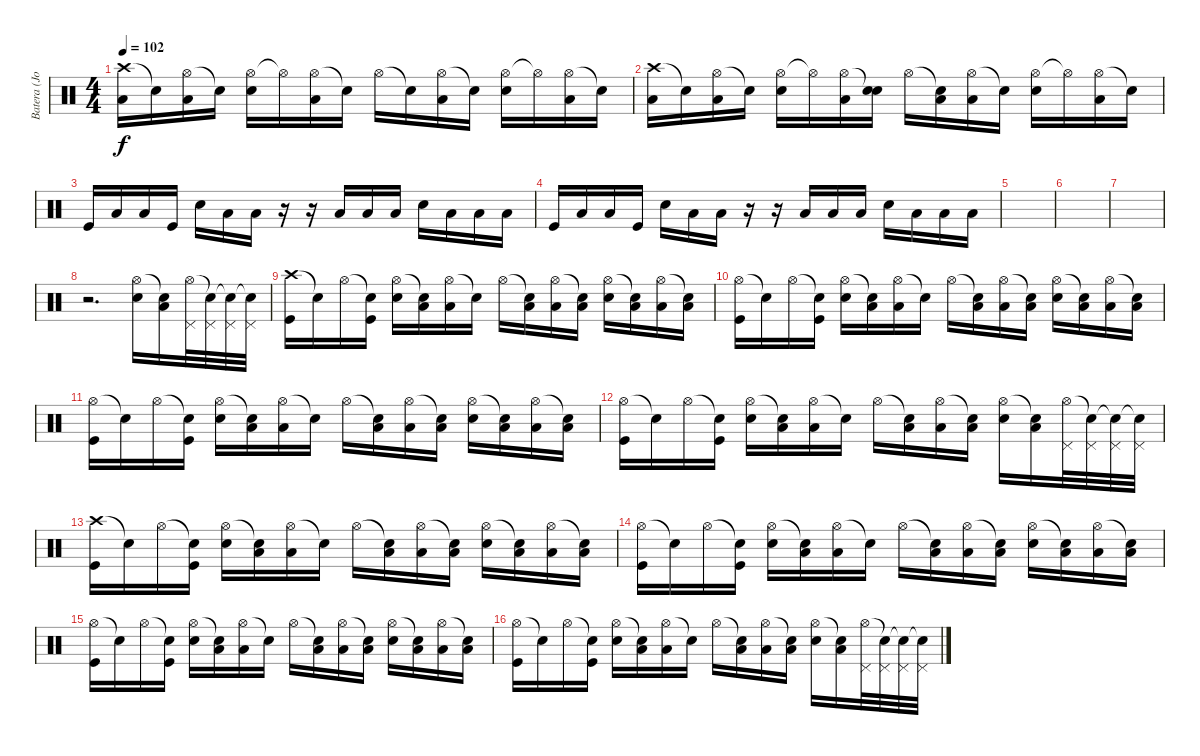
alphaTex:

\track ("Batera (John)" "Batera (Jo") {instrument percussion}
\staff {score}
\articulation defaults
\ts (4 4)
\tempo 102
\clef neutral
\ks c
("Crash high (hit)" "Low Tom (hit)").16{dy f} "Snare (hit)"{t}.16 ("Hi-Hat (open)" "Low Tom (hit)").16 "Snare (hit)"{t}.16 ("Hi-Hat (open)" "Snare (hit) 2").16 "Hi-Hat (open)"{t}.16 ("Hi-Hat (open)" "Low Tom (hit)").16 "Snare (hit)"{t}.16 "Hi-Hat (open)".16 "Snare (hit)"{t}.16 ("Hi-Hat (open)" "Low Tom (hit)").16 "Snare (hit)"{t}.16 ("Hi-Hat (open)" "Snare (hit) 2").16 "Hi-Hat (open)"{t}.16 ("Hi-Hat (open)" "Low Tom (hit)").16 "Snare (hit)"{t}.16 |
("Crash high (hit)" "Low Tom (hit)").16 "Snare (hit)"{t}.16 ("Hi-Hat (open)" "Low Tom (hit)").16 "Snare (hit)"{t}.16 ("Hi-Hat (open)" "Snare (hit) 2").16 "Hi-Hat (open)"{t}.16 ("Hi-Hat (open)" "Low Tom (hit)").16 ("Snare (hit)"{t} "Snare (hit) 2").16 "Hi-Hat (open)".16 ("Snare (hit)"{t} "Low Tom (hit)").16 ("Hi-Hat (open)" "Low Tom (hit)").16 "Snare (hit)"{t}.16 ("Hi-Hat (open)" "Snare (hit) 2").16 "Hi-Hat (open)"{t}.16 ("Hi-Hat (open)" "Low Tom (hit)").16 "Snare (hit)"{t}.16 |
"Kick (hit)".16 "Low Tom (hit)".16 "Low Tom (hit)".16 "Kick (hit)".16 "Snare (hit) 2".16 "Low Tom (hit)".16 "Low Tom (hit)".16 r.16 r.16 "Low Tom (hit)".16 "Low Tom (hit)".16 "Low Tom (hit)".16 "Snare (hit) 2".16 "Low Tom (hit)".16 "Low Tom (hit)".16 "Low Tom (hit)".16 |
"Kick (hit)".16 "Low Tom (hit)".16 "Low Tom (hit)".16 "Kick (hit)".16 "Snare (hit) 2".16 "Low Tom (hit)".16 "Low Tom (hit)".16 r.16 r.16 "Low Tom (hit)".16 "Low Tom (hit)".16 "Low Tom (hit)".16 "Snare (hit) 2".16 "Low Tom (hit)".16 "Low Tom (hit)".16 "Low Tom (hit)".16 |
|
|
|
r.2{d} ("Hi-Hat (open)" "Snare (hit) 2").16 ("Snare (hit)"{t} "Low Tom (hit)").16 ("Hi-Hat (open)" "Pedal Hi-Hat (hit)").32 ("Snare (hit)"{t} "Pedal Hi-Hat (hit)").32 ("Snare (hit)"{t} "Pedal Hi-Hat (hit)").32 ("Snare (hit)"{t} "Pedal Hi-Hat (hit)").32 |
("Crash high (hit)" "Kick (hit)").16 "Snare (hit)"{t}.16 "Hi-Hat (open)".16 ("Snare (hit)"{t} "Kick (hit)").16 ("Hi-Hat (open)" "Snare (hit) 2").16 ("Snare (hit)"{t} "Low Tom (hit)").16 ("Hi-Hat (open)" "Low Tom (hit)").16 "Snare (hit)"{t}.16 "Hi-Hat (open)".16 ("Snare (hit)"{t} "Low Tom (hit)").16 ("Hi-Hat (open)" "Low Tom (hit)").16 ("Snare (hit)"{t} "Low Tom (hit)").16 ("Hi-Hat (open)" "Snare (hit) 2").16 ("Snare (hit)"{t} "Low Tom (hit)").16 ("Hi-Hat (open)" "Low Tom (hit)").16 ("Snare (hit)"{t} "Low Tom (hit)").16 |
("Hi-Hat (open)" "Kick (hit)").16 "Snare (hit)"{t}.16 "Hi-Hat (open)".16 ("Snare (hit)"{t} "Kick (hit)").16 ("Hi-Hat (open)" "Snare (hit) 2").16 ("Snare (hit)"{t} "Low Tom (hit)").16 ("Hi-Hat (open)" "Low Tom (hit)").16 "Snare (hit)"{t}.16 "Hi-Hat (open)".16 ("Snare (hit)"{t} "Low Tom (hit)").16 ("Hi-Hat (open)" "Low Tom (hit)").16 ("Snare (hit)"{t} "Low Tom (hit)").16 ("Hi-Hat (open)" "Snare (hit) 2").16 ("Snare (hit)"{t} "Low Tom (hit)").16 ("Hi-Hat (open)" "Low Tom (hit)").16 ("Snare (hit)"{t} "Low Tom (hit)").16 |
("Hi-Hat (open)" "Kick (hit)").16 "Snare (hit)"{t}.16 "Hi-Hat (open)".16 ("Snare (hit)"{t} "Kick (hit)").16 ("Hi-Hat (open)" "Snare (hit) 2").16 ("Snare (hit)"{t} "Low Tom (hit)").16 ("Hi-Hat (open)" "Low Tom (hit)").16 "Snare (hit)"{t}.16 "Hi-Hat (open)".16 ("Snare (hit)"{t} "Low Tom (hit)").16 ("Hi-Hat (open)" "Low Tom (hit)").16 ("Snare (hit)"{t} "Low Tom (hit)").16 ("Hi-Hat (open)" "Snare (hit) 2").16 ("Snare (hit)"{t} "Low Tom (hit)").16 ("Hi-Hat (open)" "Low Tom (hit)").16 ("Snare (hit)"{t} "Low Tom (hit)").16 |
("Hi-Hat (open)" "Kick (hit)").16 "Snare (hit)"{t}.16 "Hi-Hat (open)".16 ("Snare (hit)"{t} "Kick (hit)").16 ("Hi-Hat (open)" "Snare (hit) 2").16 ("Snare (hit)"{t} "Low Tom (hit)").16 ("Hi-Hat (open)" "Low Tom (hit)").16 "Snare (hit)"{t}.16 "Hi-Hat (open)".16 ("Snare (hit)"{t} "Low Tom (hit)").16 ("Hi-Hat (open)" "Low Tom (hit)").16 ("Snare (hit)"{t} "Low Tom (hit)").16 ("Hi-Hat (open)" "Snare (hit) 2").16 ("Snare (hit)"{t} "Low Tom (hit)").16 ("Hi-Hat (open)" "Pedal Hi-Hat (hit)").32 ("Snare (hit)"{t} "Pedal Hi-Hat (hit)").32 ("Snare (hit)"{t} "Pedal Hi-Hat (hit)").32 ("Snare (hit)"{t} "Pedal Hi-Hat (hit)").32 |
("Crash high (hit)" "Kick (hit)").16 "Snare (hit)"{t}.16 "Hi-Hat (open)".16 ("Snare (hit)"{t} "Kick (hit)").16 ("Hi-Hat (open)" "Snare (hit) 2").16 ("Snare (hit)"{t} "Low Tom (hit)").16 ("Hi-Hat (open)" "Low Tom (hit)").16 "Snare (hit)"{t}.16 "Hi-Hat (open)".16 ("Snare (hit)"{t} "Low Tom (hit)").16 ("Hi-Hat (open)" "Low Tom (hit)").16 ("Snare (hit)"{t} "Low Tom (hit)").16 ("Hi-Hat (open)" "Snare (hit) 2").16 ("Snare (hit)"{t} "Low Tom (hit)").16 ("Hi-Hat (open)" "Low Tom (hit)").16 ("Snare (hit)"{t} "Low Tom (hit)").16 |
("Hi-Hat (open)" "Kick (hit)").16 "Snare (hit)"{t}.16 "Hi-Hat (open)".16 ("Snare (hit)"{t} "Kick (hit)").16 ("Hi-Hat (open)" "Snare (hit) 2").16 ("Snare (hit)"{t} "Low Tom (hit)").16 ("Hi-Hat (open)" "Low Tom (hit)").16 "Snare (hit)"{t}.16 "Hi-Hat (open)".16 ("Snare (hit)"{t} "Low Tom (hit)").16 ("Hi-Hat (open)" "Low Tom (hit)").16 ("Snare (hit)"{t} "Low Tom (hit)").16 ("Hi-Hat (open)" "Snare (hit) 2").16 ("Snare (hit)"{t} "Low Tom (hit)").16 ("Hi-Hat (open)" "Low Tom (hit)").16 ("Snare (hit)"{t} "Low Tom (hit)").16 |
("Hi-Hat (open)" "Kick (hit)").16 "Snare (hit)"{t}.16 "Hi-Hat (open)".16 ("Snare (hit)"{t} "Kick (hit)").16 ("Hi-Hat (open)" "Snare (hit) 2").16 ("Snare (hit)"{t} "Low Tom (hit)").16 ("Hi-Hat (open)" "Low Tom (hit)").16 "Snare (hit)"{t}.16 "Hi-Hat (open)".16 ("Snare (hit)"{t} "Low Tom (hit)").16 ("Hi-Hat (open)" "Low Tom (hit)").16 ("Snare (hit)"{t} "Low Tom (hit)").16 ("Hi-Hat (open)" "Snare (hit) 2").16 ("Snare (hit)"{t} "Low Tom (hit)").16 ("Hi-Hat (open)" "Low Tom (hit)").16 ("Snare (hit)"{t} "Low Tom (hit)").16 |
("Hi-Hat (open)" "Kick (hit)").16 "Snare (hit)"{t}.16 "Hi-Hat (open)".16 ("Snare (hit)"{t} "Kick (hit)").16 ("Hi-Hat (open)" "Snare (hit) 2").16 ("Snare (hit)"{t} "Low Tom (hit)").16 ("Hi-Hat (open)" "Low Tom (hit)").16 "Snare (hit)"{t}.16 "Hi-Hat (open)".16 ("Snare (hit)"{t} "Low Tom (hit)").16 ("Hi-Hat (open)" "Low Tom (hit)").16 ("Snare (hit)"{t} "Low Tom (hit)").16 ("Hi-Hat (open)" "Snare (hit) 2").16 ("Snare (hit)"{t} "Low Tom (hit)").16 ("Hi-Hat (open)" "Pedal Hi-Hat (hit)").32 ("Snare (hit)"{t} "Pedal Hi-Hat (hit)").32 ("Snare (hit)"{t} "Pedal Hi-Hat (hit)").32 ("Snare (hit)"{t} "Pedal Hi-Hat (hit)").32
